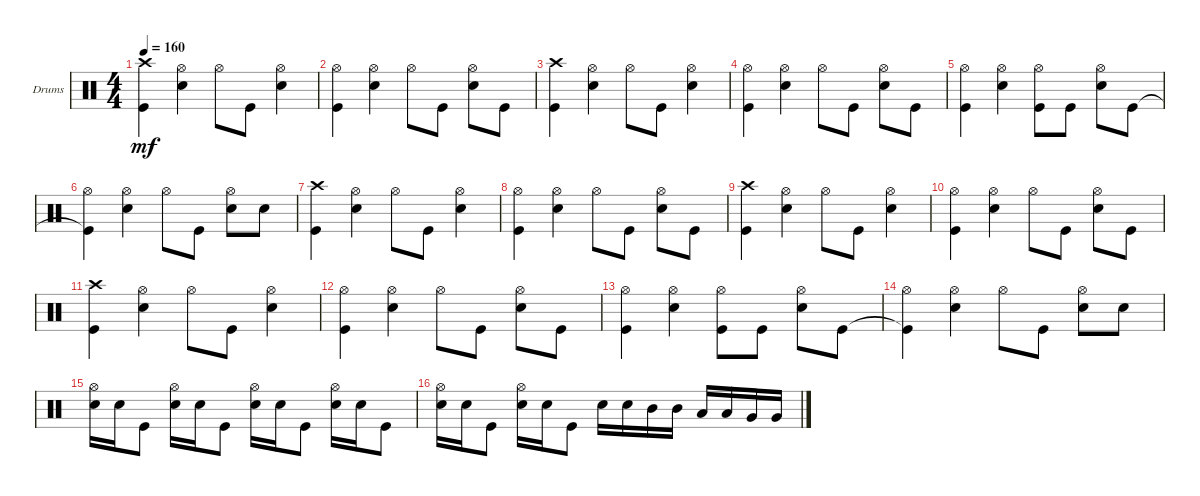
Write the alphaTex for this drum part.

\defaultSystemsLayout 4
\bracketExtendMode groupsimilarinstruments
\firstSystemTrackNameOrientation horizontal
\otherSystemsTrackNameOrientation horizontal
\track ("Drumkit" "Drums") {instrument percussion}
\staff {score}
\articulation defaults
\ts (4 4)
\tempo 160
\clef neutral
\scale
0.333333
\ks c
("Kick (hit)" "Crash high (hit)").4{dy mf} ("Snare (hit) 2" "Hi-Hat (open)").4 "Hi-Hat (open)".8 "Kick (hit)".8 ("Snare (hit) 2" "Hi-Hat (open)").4 |
\scale
0.333333 ("Kick (hit)" "Hi-Hat (open)").4 ("Snare (hit) 2" "Hi-Hat (open)").4 "Hi-Hat (open)".8 "Kick (hit)".8 ("Snare (hit) 2" "Hi-Hat (open)").8 "Kick (hit)".8 |
\scale
0.333333 ("Kick (hit)" "Crash high (hit)").4 ("Snare (hit) 2" "Hi-Hat (open)").4 "Hi-Hat (open)".8 "Kick (hit)".8 ("Snare (hit) 2" "Hi-Hat (open)").4 |
\scale
0.333333 ("Kick (hit)" "Hi-Hat (open)").4 ("Snare (hit) 2" "Hi-Hat (open)").4 "Hi-Hat (open)".8 "Kick (hit)".8 ("Snare (hit) 2" "Hi-Hat (open)").8 "Kick (hit)".8 |
\scale
0.333333 ("Hi-Hat (open)" "Kick (hit)").4 ("Snare (hit) 2" "Hi-Hat (open)").4 ("Kick (hit)" "Hi-Hat (open)").8 "Kick (hit)".8 ("Snare (hit) 2" "Hi-Hat (open)").8 "Kick (hit)".8 |
\scale
0.333333 ("Kick (hit)"{t} "Hi-Hat (open)").4 ("Hi-Hat (open)" "Snare (hit) 2").4 "Hi-Hat (open)".8 "Kick (hit)".8 ("Snare (hit) 2" "Hi-Hat (open)").8 "Snare (hit) 2".8 |
\scale
0.333333 ("Kick (hit)" "Crash high (hit)").4 ("Snare (hit) 2" "Hi-Hat (open)").4 "Hi-Hat (open)".8 "Kick (hit)".8 ("Snare (hit) 2" "Hi-Hat (open)").4 |
\scale
0.333333 ("Kick (hit)" "Hi-Hat (open)").4 ("Snare (hit) 2" "Hi-Hat (open)").4 "Hi-Hat (open)".8 "Kick (hit)".8 ("Snare (hit) 2" "Hi-Hat (open)").8 "Kick (hit)".8 |
\scale
0.333333 ("Kick (hit)" "Crash high (hit)").4 ("Snare (hit) 2" "Hi-Hat (open)").4 "Hi-Hat (open)".8 "Kick (hit)".8 ("Snare (hit) 2" "Hi-Hat (open)").4 |
\scale
0.333333 ("Kick (hit)" "Hi-Hat (open)").4 ("Snare (hit) 2" "Hi-Hat (open)").4 "Hi-Hat (open)".8 "Kick (hit)".8 ("Snare (hit) 2" "Hi-Hat (open)").8 "Kick (hit)".8 |
\scale
0.333333 ("Kick (hit)" "Crash high (hit)").4 ("Snare (hit) 2" "Hi-Hat (open)").4 "Hi-Hat (open)".8 "Kick (hit)".8 ("Snare (hit) 2" "Hi-Hat (open)").4 |
\scale
0.333333 ("Kick (hit)" "Hi-Hat (open)").4 ("Snare (hit) 2" "Hi-Hat (open)").4 "Hi-Hat (open)".8 "Kick (hit)".8 ("Snare (hit) 2" "Hi-Hat (open)").8 "Kick (hit)".8 |
\scale
0.333333 ("Hi-Hat (open)" "Kick (hit)").4 ("Snare (hit) 2" "Hi-Hat (open)").4 ("Kick (hit)" "Hi-Hat (open)").8 "Kick (hit)".8 ("Snare (hit) 2" "Hi-Hat (open)").8 "Kick (hit)".8 |
\scale
0.333333 ("Kick (hit)"{t} "Hi-Hat (open)").4 ("Hi-Hat (open)" "Snare (hit) 2").4 "Hi-Hat (open)".8 "Kick (hit)".8 ("Snare (hit) 2" "Hi-Hat (open)").8 "Snare (hit) 2".8 |
\scale
0.333333 ("Snare (hit) 2" "Hi-Hat (open)").16 "Snare (hit) 2".16 "Kick (hit)".8 ("Snare (hit) 2" "Hi-Hat (open)").16 "Snare (hit) 2".16 "Kick (hit)".8 ("Snare (hit) 2" "Hi-Hat (open)").16 "Snare (hit) 2".16 "Kick (hit)".8 ("Snare (hit) 2" "Hi-Hat (open)").16 "Snare (hit) 2".16 "Kick (hit)".8 |
\scale
0.333333 ("Snare (hit) 2" "Hi-Hat (open)").16 "Snare (hit) 2".16 "Kick (hit)".8 ("Snare (hit) 2" "Hi-Hat (open)").16 "Snare (hit) 2".16 "Kick (hit)".8 "Snare (hit) 2".16 "Snare (hit) 2".16 "Mid Tom (hit)".16 "Mid Tom (hit)".16 "Low Tom (hit)".16 "Low Tom (hit)".16 "Very Low Tom (hit)".16 "Very Low Tom (hit)".16
